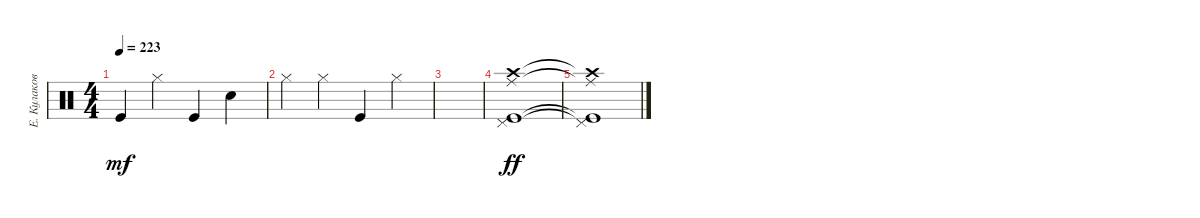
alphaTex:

\track ("Е. Кулаков" "Е. Кулаков") {instrument percussion}
\staff {score}
\articulation defaults
\ts (4 4)
\tempo 223
\clef neutral
\ks c "Kick (hit)".4{dy mf} "Hi-Hat (closed)".4 "Kick (hit)".4 "Snare (hit) 2".4
|
"Hi-Hat (closed)".4 "Hi-Hat (closed)".4 "Kick (hit)".4 "Hi-Hat (closed)".4 |
|
("Kick (hit)" "Ride (middle)" "Pedal Hi-Hat (hit)" "Crash high (hit)").1{dy ff} |
("Kick (hit)"{t} "Ride (middle)"{t} "Pedal Hi-Hat (hit)"{t} "Crash high (hit)"{t}).1
